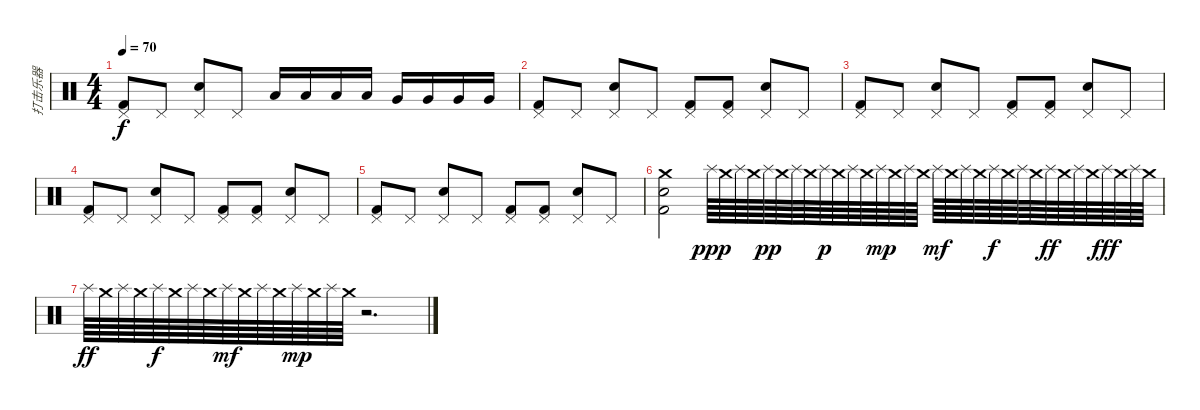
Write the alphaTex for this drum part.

\track ("打击乐器" "打击乐器") {instrument percussion}
\staff {score}
\articulation defaults
\ts (4 4)
\tempo 70
\clef neutral
\ks c
("Pedal Hi-Hat (hit)" "Kick (hit) 2").8{dy f} "Pedal Hi-Hat (hit)".8 ("Pedal Hi-Hat (hit)" "Electric Snare (hit)").8 "Pedal Hi-Hat (hit)".8 "Low Tom (hit)".16 "Low Tom (hit)".16 "Low Tom (hit)".16 "Low Tom (hit)".16 "Very Low Tom (hit)".16 "Very Low Tom (hit)".16 "Very Low Tom (hit)".16 "Very Low Tom (hit)".16 |
("Pedal Hi-Hat (hit)" "Kick (hit) 2").8 "Pedal Hi-Hat (hit)".8 ("Pedal Hi-Hat (hit)" "Electric Snare (hit)").8 "Pedal Hi-Hat (hit)".8 ("Pedal Hi-Hat (hit)" "Kick (hit) 2").8 ("Pedal Hi-Hat (hit)" "Kick (hit) 2").8 ("Pedal Hi-Hat (hit)" "Electric Snare (hit)").8 "Pedal Hi-Hat (hit)".8 |
("Pedal Hi-Hat (hit)" "Kick (hit) 2").8 "Pedal Hi-Hat (hit)".8 ("Pedal Hi-Hat (hit)" "Electric Snare (hit)").8 "Pedal Hi-Hat (hit)".8 ("Pedal Hi-Hat (hit)" "Kick (hit) 2").8 ("Pedal Hi-Hat (hit)" "Kick (hit) 2").8 ("Pedal Hi-Hat (hit)" "Electric Snare (hit)").8 "Pedal Hi-Hat (hit)".8 |
("Pedal Hi-Hat (hit)" "Kick (hit) 2").8 "Pedal Hi-Hat (hit)".8 ("Pedal Hi-Hat (hit)" "Electric Snare (hit)").8 "Pedal Hi-Hat (hit)".8 ("Pedal Hi-Hat (hit)" "Kick (hit) 2").8 ("Pedal Hi-Hat (hit)" "Kick (hit) 2").8 ("Pedal Hi-Hat (hit)" "Electric Snare (hit)").8 "Pedal Hi-Hat (hit)".8 |
("Pedal Hi-Hat (hit)" "Kick (hit) 2").8 "Pedal Hi-Hat (hit)".8 ("Pedal Hi-Hat (hit)" "Electric Snare (hit)").8 "Pedal Hi-Hat (hit)".8 ("Pedal Hi-Hat (hit)" "Kick (hit) 2").8 ("Pedal Hi-Hat (hit)" "Kick (hit) 2").8 ("Pedal Hi-Hat (hit)" "Electric Snare (hit)").8 "Pedal Hi-Hat (hit)".8 |
("Crash medium (hit)" "Electric Snare (hit)" "Kick (hit) 2").2 "Splash (hit)".64{dy ppp} "Crash medium (hit)".64 "Splash (hit)".64 "Crash medium (hit)".64 "Splash (hit)".64{dy pp} "Crash medium (hit)".64 "Splash (hit)".64 "Crash medium (hit)".64 "Splash (hit)".64{dy p} "Crash medium (hit)".64 "Splash (hit)".64 "Crash medium (hit)".64 "Splash (hit)".64{dy mp} "Crash medium (hit)".64 "Splash (hit)".64 "Crash medium (hit)".64 "Splash (hit)".64{dy mf} "Crash medium (hit)".64 "Splash (hit)".64 "Crash medium (hit)".64 "Splash (hit)".64{dy f} "Crash medium (hit)".64 "Splash (hit)".64 "Crash medium (hit)".64 "Splash (hit)".64{dy ff} "Crash medium (hit)".64 "Splash (hit)".64 "Crash medium (hit)".64 "Splash (hit)".64{dy fff} "Crash medium (hit)".64 "Splash (hit)".64 "Crash medium (hit)".64 |
"Splash (hit)".64{dy ff} "Crash medium (hit)".64 "Splash (hit)".64 "Crash medium (hit)".64 "Splash (hit)".64{dy f} "Crash medium (hit)".64 "Splash (hit)".64 "Crash medium (hit)".64 "Splash (hit)".64{dy mf} "Crash medium (hit)".64 "Splash (hit)".64 "Crash medium (hit)".64 "Splash (hit)".64{dy mp} "Crash medium (hit)".64 "Splash (hit)".64 "Crash medium (hit)".64 r.2{d}
